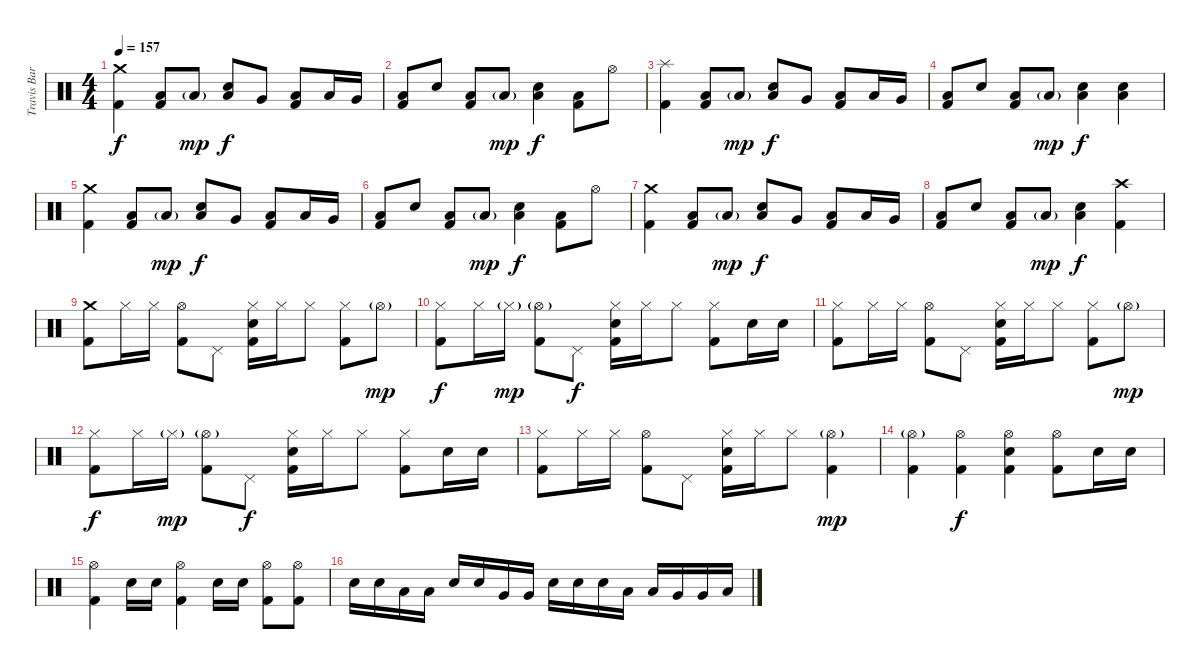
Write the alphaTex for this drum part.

\track ("Travis Barker - Drums" "Travis Bar") {instrument percussion}
\staff {score}
\articulation defaults
\ts (4 4)
\tempo 157
\clef neutral
\ks c
("Crash medium (hit)" "Kick (hit) 2").4{dy f} ("Low Floor Tom (hit)" "Kick (hit) 2").8 "Low Floor Tom (hit)"{g}.8{dy mp} ("Low Floor Tom (hit)" "Electric Snare (hit)").8{dy f} "Very Low Tom (hit)".8 ("Low Floor Tom (hit)" "Kick (hit) 2").8 "Low Tom (hit)".16 "Very Low Tom (hit)".16 |
("Low Floor Tom (hit)" "Kick (hit) 2").8 "Electric Snare (hit)".8 ("Low Floor Tom (hit)" "Kick (hit) 2").8 "Low Floor Tom (hit)"{g}.8{dy mp} ("Low Floor Tom (hit)" "Electric Snare (hit)").4{dy f} ("Low Floor Tom (hit)" "Kick (hit) 2").8 "Hi-Hat (open)".8 |
("Splash (hit)" "Kick (hit) 2").4 ("Low Floor Tom (hit)" "Kick (hit) 2").8 "Low Floor Tom (hit)"{g}.8{dy mp} ("Low Floor Tom (hit)" "Electric Snare (hit)").8{dy f} "Very Low Tom (hit)".8 ("Low Floor Tom (hit)" "Kick (hit) 2").8 "Low Tom (hit)".16 "Very Low Tom (hit)".16 |
("Low Floor Tom (hit)" "Kick (hit) 2").8 "Electric Snare (hit)".8 ("Low Floor Tom (hit)" "Kick (hit) 2").8 "Low Floor Tom (hit)"{g}.8{dy mp} ("Low Floor Tom (hit)" "Electric Snare (hit)").4{dy f} ("Low Floor Tom (hit)" "Electric Snare (hit)").4 |
("Crash medium (hit)" "Kick (hit) 2").4 ("Low Floor Tom (hit)" "Kick (hit) 2").8 "Low Floor Tom (hit)"{g}.8{dy mp} ("Low Floor Tom (hit)" "Electric Snare (hit)").8{dy f} "Very Low Tom (hit)".8 ("Low Floor Tom (hit)" "Kick (hit) 2").8 "Low Tom (hit)".16 "Very Low Tom (hit)".16 |
("Low Floor Tom (hit)" "Kick (hit) 2").8 "Electric Snare (hit)".8 ("Low Floor Tom (hit)" "Kick (hit) 2").8 "Low Floor Tom (hit)"{g}.8{dy mp} ("Low Floor Tom (hit)" "Electric Snare (hit)").4{dy f} ("Low Floor Tom (hit)" "Kick (hit) 2").8 "Hi-Hat (open)".8 |
("Crash medium (hit)" "Kick (hit) 2").4 ("Low Floor Tom (hit)" "Kick (hit) 2").8 "Low Floor Tom (hit)"{g}.8{dy mp} ("Low Floor Tom (hit)" "Electric Snare (hit)").8{dy f} "Very Low Tom (hit)".8 ("Low Floor Tom (hit)" "Kick (hit) 2").8 "Low Tom (hit)".16 "Very Low Tom (hit)".16 |
("Low Floor Tom (hit)" "Kick (hit) 2").8 "Electric Snare (hit)".8 ("Low Floor Tom (hit)" "Kick (hit) 2").8 "Low Floor Tom (hit)"{g}.8{dy mp} ("Low Floor Tom (hit)" "Electric Snare (hit)").4{dy f} ("Crash high (hit)" "Kick (hit) 2").4 |
("Crash medium (hit)" "Kick (hit) 2").8 "Hi-Hat (closed)".16 "Hi-Hat (closed)".16 ("Hi-Hat (open)" "Kick (hit) 2").8 "Pedal Hi-Hat (hit)".8 ("Hi-Hat (closed)" "Electric Snare (hit)" "Kick (hit) 2").16 "Hi-Hat (closed)".16 "Hi-Hat (closed)".8 ("Hi-Hat (closed)" "Kick (hit) 2").8 "Hi-Hat (open)"{g}.8{dy mp} |
("Hi-Hat (closed)" "Kick (hit) 2").8{dy f} "Hi-Hat (closed)".16 "Hi-Hat (closed)"{g}.16{dy mp} ("Hi-Hat (open)"{g} "Kick (hit) 2").8 "Pedal Hi-Hat (hit)".8{dy f} ("Hi-Hat (closed)" "Electric Snare (hit)" "Kick (hit) 2").16 "Hi-Hat (closed)".16 "Hi-Hat (closed)".8 ("Hi-Hat (closed)" "Kick (hit) 2").8 "Electric Snare (hit)".16 "Electric Snare (hit)".16 |
("Hi-Hat (closed)" "Kick (hit) 2").8 "Hi-Hat (closed)".16 "Hi-Hat (closed)".16 ("Hi-Hat (open)" "Kick (hit) 2").8 "Pedal Hi-Hat (hit)".8 ("Hi-Hat (closed)" "Electric Snare (hit)" "Kick (hit) 2").16 "Hi-Hat (closed)".16 "Hi-Hat (closed)".8 ("Hi-Hat (closed)" "Kick (hit) 2").8 "Hi-Hat (open)"{g}.8{dy mp} |
("Hi-Hat (closed)" "Kick (hit) 2").8{dy f} "Hi-Hat (closed)".16 "Hi-Hat (closed)"{g}.16{dy mp} ("Hi-Hat (open)"{g} "Kick (hit) 2").8 "Pedal Hi-Hat (hit)".8{dy f} ("Hi-Hat (closed)" "Electric Snare (hit)" "Kick (hit) 2").16 "Hi-Hat (closed)".16 "Hi-Hat (closed)".8 ("Hi-Hat (closed)" "Kick (hit) 2").8 "Electric Snare (hit)".16 "Electric Snare (hit)".16 |
("Hi-Hat (closed)" "Kick (hit) 2").8 "Hi-Hat (closed)".16 "Hi-Hat (closed)".16 ("Hi-Hat (open)" "Kick (hit) 2").8 "Pedal Hi-Hat (hit)".8 ("Hi-Hat (closed)" "Electric Snare (hit)" "Kick (hit) 2").16 "Hi-Hat (closed)".16 "Hi-Hat (closed)".8 ("Hi-Hat (open)"{g} "Kick (hit) 2").4{dy mp} |
("Hi-Hat (open)"{g} "Kick (hit) 2").4 ("Hi-Hat (open)" "Kick (hit) 2").4{dy f} ("Hi-Hat (open)" "Electric Snare (hit)" "Kick (hit) 2").4 ("Hi-Hat (open)" "Kick (hit) 2").8 "Electric Snare (hit)".16 "Electric Snare (hit)".16 |
("Hi-Hat (open)" "Kick (hit) 2").4 "Electric Snare (hit)".16 "Electric Snare (hit)".16 ("Hi-Hat (open)" "Kick (hit) 2").4 "Electric Snare (hit)".16 "Electric Snare (hit)".16 ("Hi-Hat (open)" "Kick (hit) 2").8 ("Hi-Hat (open)" "Kick (hit) 2").8 |
"Electric Snare (hit)".16 "Electric Snare (hit)".16 "Low Tom (hit)".16 "Low Tom (hit)".16 "Electric Snare (hit)".16 "Electric Snare (hit)".16 "Very Low Tom (hit)".16 "Very Low Tom (hit)".16 "Electric Snare (hit)".16 "Electric Snare (hit)".16 "Electric Snare (hit)".16 "Low Tom (hit)".16 "Low Tom (hit)".16 "Very Low Tom (hit)".16 "Very Low Tom (hit)".16 "Low Floor Tom (hit)".16
